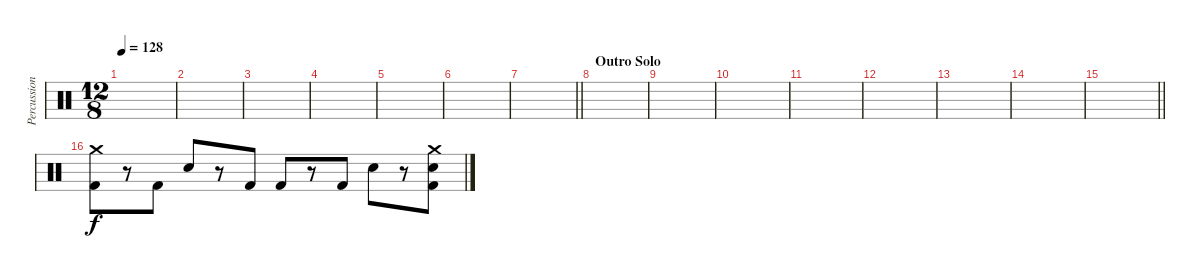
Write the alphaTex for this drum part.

\track ("Percussion" "Percussion") {instrument percussion}
\staff {score}
\articulation defaults
\ts (12 8)
\tempo 128
\clef neutral
\ks c
|
|
|
|
|
|
\barLineRight lightlight
|
\section ("" "Outro Solo")
|
|
|
|
|
|
|
\barLineRight lightlight
|
("Crash medium (hit)" "Kick (hit) 2").8 r.8 "Kick (hit) 2".8 "Snare (hit) 2".8 r.8 "Kick (hit) 2".8 "Kick (hit) 2".8 r.8 "Kick (hit) 2".8 "Snare (hit) 2".8 r.8 ("Crash medium (hit)" "Snare (hit) 2" "Kick (hit) 2").8
